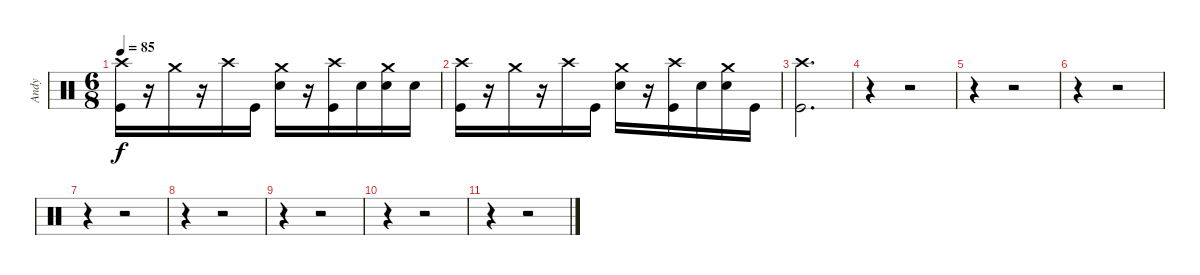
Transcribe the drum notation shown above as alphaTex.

\track ("Andy" "Andy") {instrument percussion}
\staff {score}
\articulation defaults
\ts (6 8)
\tempo 85
\clef neutral
\ks c
("Crash high (hit)" "Kick (hit)").16{dy f} r.16 "Crash medium (hit)".16 r.16 "Crash high (hit)".16 "Kick (hit)".16 ("Crash medium (hit)" "Snare (hit) 2").16 r.16 ("Crash high (hit)" "Kick (hit)").16 "Snare (hit) 2".16 ("Crash medium (hit)" "Snare (hit) 2").16 "Snare (hit) 2".16 |
("Crash high (hit)" "Kick (hit)").16 r.16 "Crash medium (hit)".16 r.16 "Crash high (hit)".16 "Kick (hit)".16 ("Crash medium (hit)" "Snare (hit) 2").16 r.16 ("Crash high (hit)" "Kick (hit)").16 "Snare (hit) 2".16 ("Crash medium (hit)" "Snare (hit) 2").16 "Kick (hit)".16 |
("Kick (hit)" "Crash high (hit)").2{d} |
r.4 r.2 |
r.4 r.2 |
r.4 r.2 |
r.4 r.2 |
r.4 r.2 |
r.4 r.2 |
r.4 r.2 |
r.4 r.2
